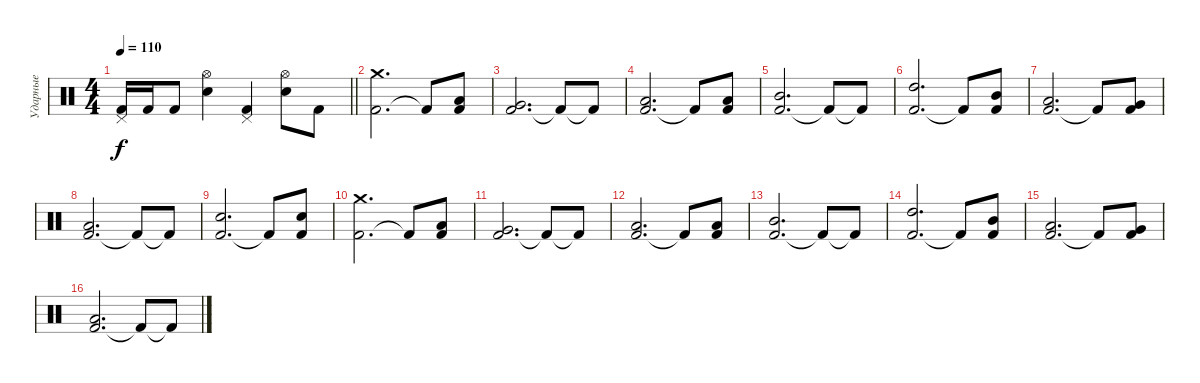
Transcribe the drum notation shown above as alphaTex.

\track ("Ударные" "Ударные") {instrument percussion}
\staff {score}
\articulation defaults
\ts (4 4)
\tempo 110
\clef neutral
\barLineRight lightlight
\ks c
("Kick (hit) 2" "Pedal Hi-Hat (hit)").16{dy f} "Kick (hit) 2".16 "Kick (hit) 2".8 ("Snare (hit) 2" "Hi-Hat (open)").4 ("Kick (hit) 2" "Pedal Hi-Hat (hit)").4 ("Snare (hit) 2" "Hi-Hat (open)").8 "Kick (hit) 2".8 |
("Kick (hit) 2" "Crash medium (hit)").2{d} "Kick (hit) 2"{t}.8 ("Kick (hit) 2" "Low Floor Tom (hit)").8 |
("Kick (hit) 2" "Very Low Tom (hit)").2{d} "Kick (hit) 2"{t}.8 "Kick (hit) 2"{t}.8 |
("Kick (hit) 2" "Low Tom (hit)").2{d} "Kick (hit) 2"{t}.8 ("Kick (hit) 2" "Low Tom (hit)").8 |
("Kick (hit) 2" "Mid Tom (hit)").2{d} "Kick (hit) 2"{t}.8 "Kick (hit) 2"{t}.8 |
("Kick (hit) 2" "High Tom (hit)").2{d} "Kick (hit) 2"{t}.8 ("Kick (hit) 2" "Mid Tom (hit)").8 |
("Kick (hit) 2" "Low Tom (hit)").2{d} "Kick (hit) 2"{t}.8 ("Kick (hit) 2" "Very Low Tom (hit)").8 |
("Kick (hit) 2" "Low Floor Tom (hit)").2{d} "Kick (hit) 2"{t}.8 "Kick (hit) 2"{t}.8 |
("Kick (hit) 2" "Snare (hit) 2").2{d} "Kick (hit) 2"{t}.8 ("Kick (hit) 2" "Snare (hit) 2").8 |
("Kick (hit) 2" "Crash medium (hit)").2{d} "Kick (hit) 2"{t}.8 ("Kick (hit) 2" "Low Floor Tom (hit)").8 |
("Kick (hit) 2" "Very Low Tom (hit)").2{d} "Kick (hit) 2"{t}.8 "Kick (hit) 2"{t}.8 |
("Kick (hit) 2" "Low Tom (hit)").2{d} "Kick (hit) 2"{t}.8 ("Kick (hit) 2" "Low Tom (hit)").8 |
("Kick (hit) 2" "Mid Tom (hit)").2{d} "Kick (hit) 2"{t}.8 "Kick (hit) 2"{t}.8 |
("Kick (hit) 2" "High Tom (hit)").2{d} "Kick (hit) 2"{t}.8 ("Kick (hit) 2" "Mid Tom (hit)").8 |
("Kick (hit) 2" "Low Tom (hit)").2{d} "Kick (hit) 2"{t}.8 ("Kick (hit) 2" "Very Low Tom (hit)").8 |
("Kick (hit) 2" "Low Floor Tom (hit)").2{d} "Kick (hit) 2"{t}.8 "Kick (hit) 2"{t}.8
